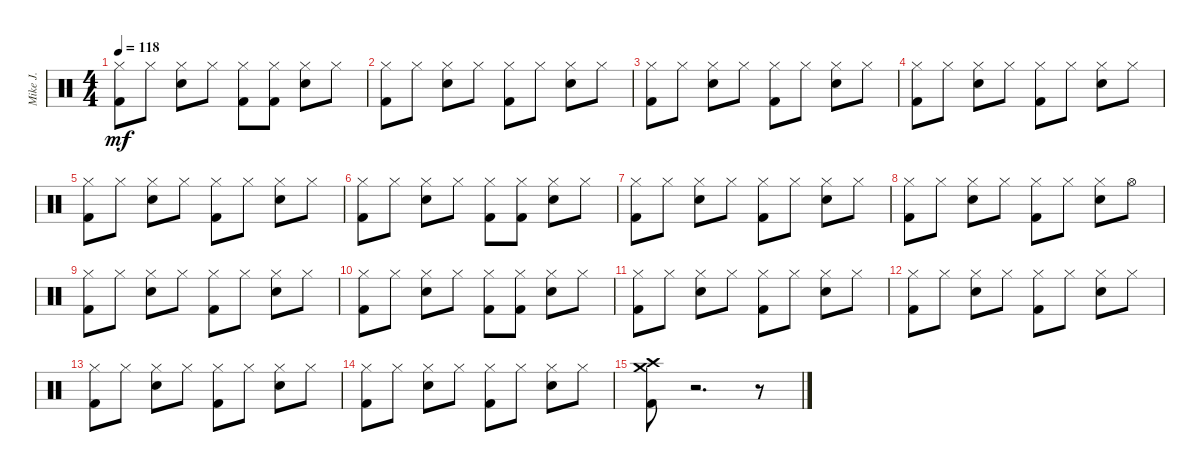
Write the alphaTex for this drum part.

\track ("Mike J." "Mike J.") {instrument percussion}
\staff {score}
\articulation defaults
\ts (4 4)
\tempo 118
\clef neutral
\ks c
("Hi-Hat (closed)" "Kick (hit) 2").8{dy mf} "Hi-Hat (closed)".8 ("Hi-Hat (closed)" "Electric Snare (hit)").8 "Hi-Hat (closed)".8 ("Hi-Hat (closed)" "Kick (hit) 2").8 ("Hi-Hat (closed)" "Kick (hit) 2").8 ("Hi-Hat (closed)" "Electric Snare (hit)").8 "Hi-Hat (closed)".8 |
("Hi-Hat (closed)" "Kick (hit) 2").8 "Hi-Hat (closed)".8 ("Hi-Hat (closed)" "Electric Snare (hit)").8 "Hi-Hat (closed)".8 ("Hi-Hat (closed)" "Kick (hit) 2").8 "Hi-Hat (closed)".8 ("Hi-Hat (closed)" "Electric Snare (hit)").8 "Hi-Hat (closed)".8 |
("Hi-Hat (closed)" "Kick (hit) 2").8 "Hi-Hat (closed)".8 ("Hi-Hat (closed)" "Electric Snare (hit)").8 "Hi-Hat (closed)".8 ("Hi-Hat (closed)" "Kick (hit) 2").8 "Hi-Hat (closed)".8 ("Hi-Hat (closed)" "Electric Snare (hit)").8 "Hi-Hat (closed)".8 |
("Hi-Hat (closed)" "Kick (hit) 2").8 "Hi-Hat (closed)".8 ("Hi-Hat (closed)" "Electric Snare (hit)").8 "Hi-Hat (closed)".8 ("Hi-Hat (closed)" "Kick (hit) 2").8 "Hi-Hat (closed)".8 ("Hi-Hat (closed)" "Electric Snare (hit)").8 "Hi-Hat (closed)".8 |
("Hi-Hat (closed)" "Kick (hit) 2").8 "Hi-Hat (closed)".8 ("Hi-Hat (closed)" "Electric Snare (hit)").8 "Hi-Hat (closed)".8 ("Hi-Hat (closed)" "Kick (hit) 2").8 "Hi-Hat (closed)".8 ("Hi-Hat (closed)" "Electric Snare (hit)").8 "Hi-Hat (closed)".8 |
("Hi-Hat (closed)" "Kick (hit) 2").8 "Hi-Hat (closed)".8 ("Hi-Hat (closed)" "Electric Snare (hit)").8 "Hi-Hat (closed)".8 ("Hi-Hat (closed)" "Kick (hit) 2").8 ("Hi-Hat (closed)" "Kick (hit) 2").8 ("Hi-Hat (closed)" "Electric Snare (hit)").8 "Hi-Hat (closed)".8 |
("Hi-Hat (closed)" "Kick (hit) 2").8 "Hi-Hat (closed)".8 ("Hi-Hat (closed)" "Electric Snare (hit)").8 "Hi-Hat (closed)".8 ("Hi-Hat (closed)" "Kick (hit) 2").8 "Hi-Hat (closed)".8 ("Hi-Hat (closed)" "Electric Snare (hit)").8 "Hi-Hat (closed)".8 |
("Hi-Hat (closed)" "Kick (hit) 2").8 "Hi-Hat (closed)".8 ("Hi-Hat (closed)" "Electric Snare (hit)").8 "Hi-Hat (closed)".8 ("Hi-Hat (closed)" "Kick (hit) 2").8 "Hi-Hat (closed)".8 ("Hi-Hat (closed)" "Electric Snare (hit)").8 "Hi-Hat (open)".8 |
("Hi-Hat (closed)" "Kick (hit) 2").8 "Hi-Hat (closed)".8 ("Hi-Hat (closed)" "Electric Snare (hit)").8 "Hi-Hat (closed)".8 ("Hi-Hat (closed)" "Kick (hit) 2").8 "Hi-Hat (closed)".8 ("Hi-Hat (closed)" "Electric Snare (hit)").8 "Hi-Hat (closed)".8 |
("Hi-Hat (closed)" "Kick (hit) 2").8 "Hi-Hat (closed)".8 ("Hi-Hat (closed)" "Electric Snare (hit)").8 "Hi-Hat (closed)".8 ("Hi-Hat (closed)" "Kick (hit) 2").8 ("Hi-Hat (closed)" "Kick (hit) 2").8 ("Hi-Hat (closed)" "Electric Snare (hit)").8 "Hi-Hat (closed)".8 |
("Hi-Hat (closed)" "Kick (hit) 2").8 "Hi-Hat (closed)".8 ("Hi-Hat (closed)" "Electric Snare (hit)").8 "Hi-Hat (closed)".8 ("Hi-Hat (closed)" "Kick (hit) 2").8 "Hi-Hat (closed)".8 ("Hi-Hat (closed)" "Electric Snare (hit)").8 "Hi-Hat (closed)".8 |
("Hi-Hat (closed)" "Kick (hit) 2").8 "Hi-Hat (closed)".8 ("Hi-Hat (closed)" "Electric Snare (hit)").8 "Hi-Hat (closed)".8 ("Hi-Hat (closed)" "Kick (hit) 2").8 "Hi-Hat (closed)".8 ("Hi-Hat (closed)" "Electric Snare (hit)").8 "Hi-Hat (closed)".8 |
("Hi-Hat (closed)" "Kick (hit) 2").8 "Hi-Hat (closed)".8 ("Hi-Hat (closed)" "Electric Snare (hit)").8 "Hi-Hat (closed)".8 ("Hi-Hat (closed)" "Kick (hit) 2").8 "Hi-Hat (closed)".8 ("Hi-Hat (closed)" "Electric Snare (hit)").8 "Hi-Hat (closed)".8 |
("Hi-Hat (closed)" "Kick (hit) 2").8 "Hi-Hat (closed)".8 ("Hi-Hat (closed)" "Electric Snare (hit)").8 "Hi-Hat (closed)".8 ("Hi-Hat (closed)" "Kick (hit) 2").8 "Hi-Hat (closed)".8 ("Hi-Hat (closed)" "Electric Snare (hit)").8 "Hi-Hat (closed)".8 |
("Crash high (hit)" "Crash medium (hit)" "Kick (hit) 2").8 r.2{d} r.8
